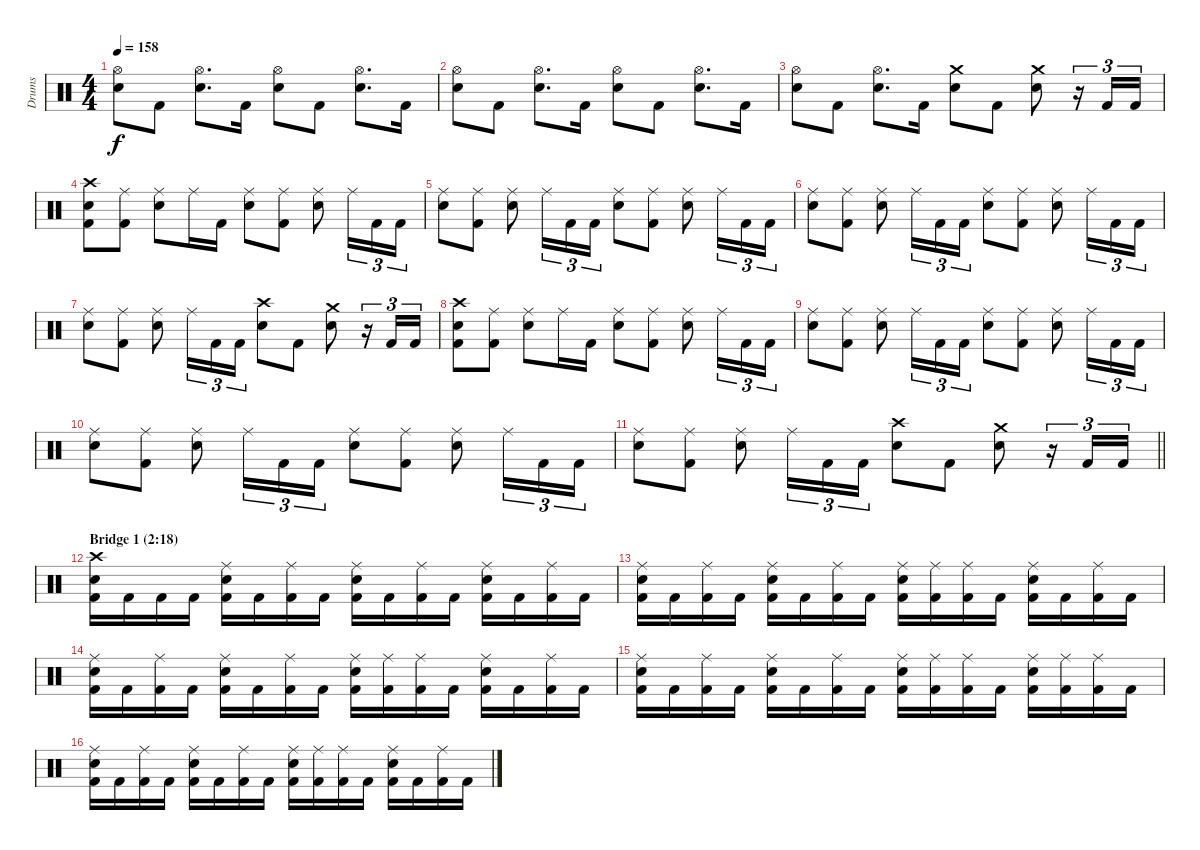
\track ("Drums" "Drums") {instrument percussion}
\staff {score}
\articulation defaults
\ts (4 4)
\tempo 158
\clef neutral
\ks c
("Hi-Hat (open)" "Electric Snare (hit)").8{dy f} "Kick (hit) 2".8 ("Hi-Hat (open)" "Electric Snare (hit)").8{d} "Kick (hit) 2".16 ("Hi-Hat (open)" "Electric Snare (hit)").8 "Kick (hit) 2".8 ("Hi-Hat (open)" "Electric Snare (hit)").8{d} "Kick (hit) 2".16 |
("Hi-Hat (open)" "Electric Snare (hit)").8 "Kick (hit) 2".8 ("Hi-Hat (open)" "Electric Snare (hit)").8{d} "Kick (hit) 2".16 ("Hi-Hat (open)" "Electric Snare (hit)").8 "Kick (hit) 2".8 ("Hi-Hat (open)" "Electric Snare (hit)").8{d} "Kick (hit) 2".16 |
("Hi-Hat (open)" "Electric Snare (hit)").8 "Kick (hit) 2".8 ("Hi-Hat (open)" "Electric Snare (hit)").8{d} "Kick (hit) 2".16 ("Crash medium (hit)" "Electric Snare (hit)").8 "Kick (hit) 2".8 ("Crash medium (hit)" "Electric Snare (hit)").8 r.16{tu (3 2)} "Kick (hit) 2".16{tu (3 2)} "Kick (hit) 2".16{tu (3 2)} |
("Crash high (hit)" "Electric Snare (hit)" "Kick (hit) 2").8 ("Ride (middle)" "Kick (hit) 2").8 ("Ride (middle)" "Electric Snare (hit)").8 "Ride (middle)".16 "Kick (hit) 2".16 ("Ride (middle)" "Electric Snare (hit)").8 ("Ride (middle)" "Kick (hit) 2").8 ("Ride (middle)" "Electric Snare (hit)").8 "Ride (middle)".16{tu (3 2)} "Kick (hit) 2".16{tu (3 2)} "Kick (hit) 2".16{tu (3 2)} |
("Ride (middle)" "Electric Snare (hit)").8 ("Ride (middle)" "Kick (hit) 2").8 ("Ride (middle)" "Electric Snare (hit)").8 "Ride (middle)".16{tu (3 2)} "Kick (hit) 2".16{tu (3 2)} "Kick (hit) 2".16{tu (3 2)} ("Ride (middle)" "Electric Snare (hit)").8 ("Ride (middle)" "Kick (hit) 2").8 ("Ride (middle)" "Electric Snare (hit)").8 "Ride (middle)".16{tu (3 2)} "Kick (hit) 2".16{tu (3 2)} "Kick (hit) 2".16{tu (3 2)} |
("Ride (middle)" "Electric Snare (hit)").8 ("Ride (middle)" "Kick (hit) 2").8 ("Ride (middle)" "Electric Snare (hit)").8 "Ride (middle)".16{tu (3 2)} "Kick (hit) 2".16{tu (3 2)} "Kick (hit) 2".16{tu (3 2)} ("Ride (middle)" "Electric Snare (hit)").8 ("Ride (middle)" "Kick (hit) 2").8 ("Ride (middle)" "Electric Snare (hit)").8 "Ride (middle)".16{tu (3 2)} "Kick (hit) 2".16{tu (3 2)} "Kick (hit) 2".16{tu (3 2)} |
("Ride (middle)" "Electric Snare (hit)").8 ("Ride (middle)" "Kick (hit) 2").8 ("Ride (middle)" "Electric Snare (hit)").8 "Ride (middle)".16{tu (3 2)} "Kick (hit) 2".16{tu (3 2)} "Kick (hit) 2".16{tu (3 2)} ("Crash high (hit)" "Electric Snare (hit)").8 "Kick (hit) 2".8 ("Crash medium (hit)" "Electric Snare (hit)").8 r.16{tu (3 2)} "Kick (hit) 2".16{tu (3 2)} "Kick (hit) 2".16{tu (3 2)} |
("Crash high (hit)" "Electric Snare (hit)" "Kick (hit) 2").8 ("Ride (middle)" "Kick (hit) 2").8 ("Ride (middle)" "Electric Snare (hit)").8 "Ride (middle)".16 "Kick (hit) 2".16 ("Ride (middle)" "Electric Snare (hit)").8 ("Ride (middle)" "Kick (hit) 2").8 ("Ride (middle)" "Electric Snare (hit)").8 "Ride (middle)".16{tu (3 2)} "Kick (hit) 2".16{tu (3 2)} "Kick (hit) 2".16{tu (3 2)} |
("Ride (middle)" "Electric Snare (hit)").8 ("Ride (middle)" "Kick (hit) 2").8 ("Ride (middle)" "Electric Snare (hit)").8 "Ride (middle)".16{tu (3 2)} "Kick (hit) 2".16{tu (3 2)} "Kick (hit) 2".16{tu (3 2)} ("Ride (middle)" "Electric Snare (hit)").8 ("Ride (middle)" "Kick (hit) 2").8 ("Ride (middle)" "Electric Snare (hit)").8 "Ride (middle)".16{tu (3 2)} "Kick (hit) 2".16{tu (3 2)} "Kick (hit) 2".16{tu (3 2)} |
("Ride (middle)" "Electric Snare (hit)").8 ("Ride (middle)" "Kick (hit) 2").8 ("Ride (middle)" "Electric Snare (hit)").8 "Ride (middle)".16{tu (3 2)} "Kick (hit) 2".16{tu (3 2)} "Kick (hit) 2".16{tu (3 2)} ("Ride (middle)" "Electric Snare (hit)").8 ("Ride (middle)" "Kick (hit) 2").8 ("Ride (middle)" "Electric Snare (hit)").8 "Ride (middle)".16{tu (3 2)} "Kick (hit) 2".16{tu (3 2)} "Kick (hit) 2".16{tu (3 2)} |
\barLineRight lightlight
("Ride (middle)" "Electric Snare (hit)").8 ("Ride (middle)" "Kick (hit) 2").8 ("Ride (middle)" "Electric Snare (hit)").8 "Ride (middle)".16{tu (3 2)} "Kick (hit) 2".16{tu (3 2)} "Kick (hit) 2".16{tu (3 2)} ("Crash high (hit)" "Electric Snare (hit)").8 "Kick (hit) 2".8 ("Crash medium (hit)" "Electric Snare (hit)").8 r.16{tu (3 2)} "Kick (hit) 2".16{tu (3 2)} "Kick (hit) 2".16{tu (3 2)} |
\section ("" "Bridge 1 (2:18)")
("Crash high (hit)" "Electric Snare (hit)" "Kick (hit) 2").16 "Kick (hit) 2".16 "Kick (hit) 2".16 "Kick (hit) 2".16 ("Ride (middle)" "Electric Snare (hit)" "Kick (hit) 2").16 "Kick (hit) 2".16 ("Ride (middle)" "Kick (hit) 2").16 "Kick (hit) 2".16 ("Ride (middle)" "Electric Snare (hit)" "Kick (hit) 2").16 "Kick (hit) 2".16 ("Ride (middle)" "Kick (hit) 2").16 "Kick (hit) 2".16 ("Ride (middle)" "Electric Snare (hit)" "Kick (hit) 2").16 "Kick (hit) 2".16 ("Ride (middle)" "Kick (hit) 2").16 "Kick (hit) 2".16 |
("Ride (middle)" "Electric Snare (hit)" "Kick (hit) 2").16 "Kick (hit) 2".16 ("Ride (middle)" "Kick (hit) 2").16 "Kick (hit) 2".16 ("Ride (middle)" "Electric Snare (hit)" "Kick (hit) 2").16 "Kick (hit) 2".16 ("Ride (middle)" "Kick (hit) 2").16 "Kick (hit) 2".16 ("Ride (middle)" "Electric Snare (hit)" "Kick (hit) 2").16 ("Ride (middle)" "Kick (hit) 2").16 ("Ride (middle)" "Kick (hit) 2").16 "Kick (hit) 2".16 ("Ride (middle)" "Electric Snare (hit)" "Kick (hit) 2").16 "Kick (hit) 2".16 ("Ride (middle)" "Kick (hit) 2").16 "Kick (hit) 2".16 |
("Ride (middle)" "Electric Snare (hit)" "Kick (hit) 2").16 "Kick (hit) 2".16 ("Ride (middle)" "Kick (hit) 2").16 "Kick (hit) 2".16 ("Ride (middle)" "Electric Snare (hit)" "Kick (hit) 2").16 "Kick (hit) 2".16 ("Ride (middle)" "Kick (hit) 2").16 "Kick (hit) 2".16 ("Ride (middle)" "Electric Snare (hit)" "Kick (hit) 2").16 ("Ride (middle)" "Kick (hit) 2").16 ("Ride (middle)" "Kick (hit) 2").16 "Kick (hit) 2".16 ("Ride (middle)" "Electric Snare (hit)" "Kick (hit) 2").16 "Kick (hit) 2".16 ("Ride (middle)" "Kick (hit) 2").16 "Kick (hit) 2".16 |
("Ride (middle)" "Electric Snare (hit)" "Kick (hit) 2").16 "Kick (hit) 2".16 ("Ride (middle)" "Kick (hit) 2").16 "Kick (hit) 2".16 ("Ride (middle)" "Electric Snare (hit)" "Kick (hit) 2").16 "Kick (hit) 2".16 ("Ride (middle)" "Kick (hit) 2").16 "Kick (hit) 2".16 ("Ride (middle)" "Electric Snare (hit)" "Kick (hit) 2").16 ("Ride (middle)" "Kick (hit) 2").16 ("Ride (middle)" "Kick (hit) 2").16 "Kick (hit) 2".16 ("Ride (middle)" "Electric Snare (hit)" "Kick (hit) 2").16 ("Ride (middle)" "Kick (hit) 2").16 ("Ride (middle)" "Kick (hit) 2").16 "Kick (hit) 2".16 |
("Ride (middle)" "Electric Snare (hit)" "Kick (hit) 2").16 "Kick (hit) 2".16 ("Ride (middle)" "Kick (hit) 2").16 "Kick (hit) 2".16 ("Ride (middle)" "Electric Snare (hit)" "Kick (hit) 2").16 "Kick (hit) 2".16 ("Ride (middle)" "Kick (hit) 2").16 "Kick (hit) 2".16 ("Ride (middle)" "Electric Snare (hit)" "Kick (hit) 2").16 ("Ride (middle)" "Kick (hit) 2").16 ("Ride (middle)" "Kick (hit) 2").16 "Kick (hit) 2".16 ("Ride (middle)" "Electric Snare (hit)" "Kick (hit) 2").16 "Kick (hit) 2".16 ("Ride (middle)" "Kick (hit) 2").16 "Kick (hit) 2".16
